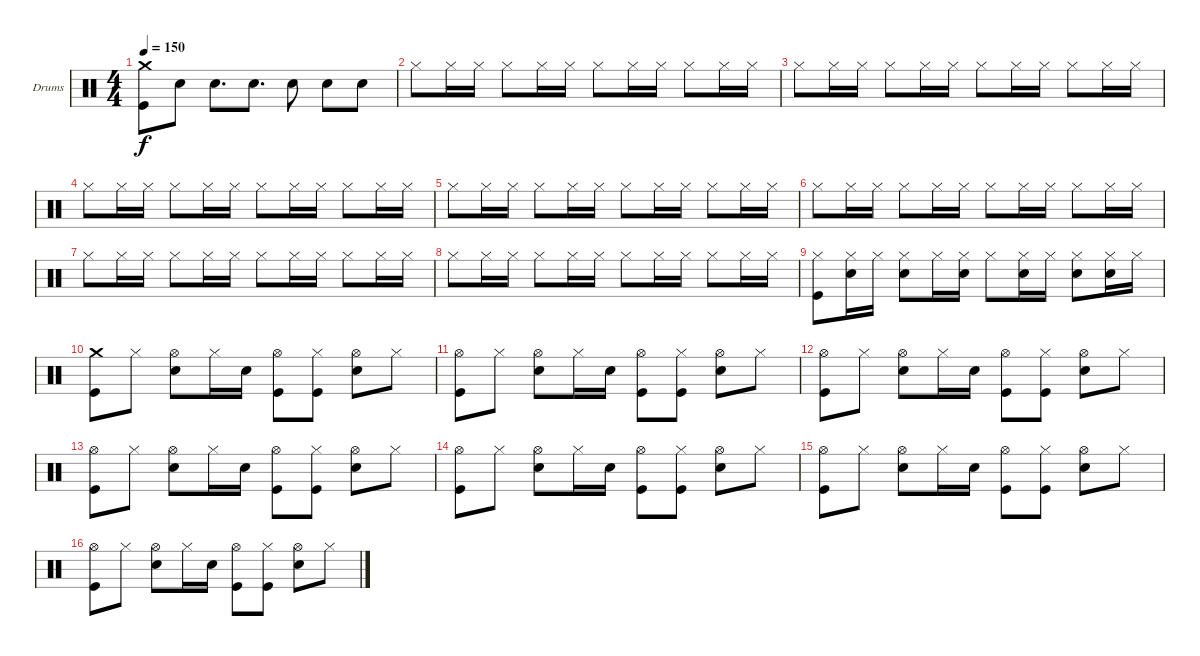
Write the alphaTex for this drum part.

\bracketExtendMode groupsimilarinstruments
\firstSystemTrackNameOrientation horizontal
\otherSystemsTrackNameOrientation horizontal
\track ("Drumkit" "Drums") {instrument percussion}
\staff {score}
\articulation defaults
\ts (4 4)
\tempo 150
\clef neutral
\ks c
("Crash medium (hit)" "Kick (hit)").8{dy f} "Snare (hit) 2".8 "Snare (hit) 2".8{d} "Snare (hit) 2".8{d} "Snare (hit) 2".8 "Snare (hit) 2".8 "Snare (hit) 2".8 |
"Hi-Hat (closed)".8 "Hi-Hat (closed)".16 "Hi-Hat (closed)".16 "Hi-Hat (closed)".8 "Hi-Hat (closed)".16 "Hi-Hat (closed)".16 "Hi-Hat (closed)".8 "Hi-Hat (closed)".16 "Hi-Hat (closed)".16 "Hi-Hat (closed)".8 "Hi-Hat (closed)".16 "Hi-Hat (closed)".16 |
"Hi-Hat (closed)".8 "Hi-Hat (closed)".16 "Hi-Hat (closed)".16 "Hi-Hat (closed)".8 "Hi-Hat (closed)".16 "Hi-Hat (closed)".16 "Hi-Hat (closed)".8 "Hi-Hat (closed)".16 "Hi-Hat (closed)".16 "Hi-Hat (closed)".8 "Hi-Hat (closed)".16 "Hi-Hat (closed)".16 |
"Hi-Hat (closed)".8 "Hi-Hat (closed)".16 "Hi-Hat (closed)".16 "Hi-Hat (closed)".8 "Hi-Hat (closed)".16 "Hi-Hat (closed)".16 "Hi-Hat (closed)".8 "Hi-Hat (closed)".16 "Hi-Hat (closed)".16 "Hi-Hat (closed)".8 "Hi-Hat (closed)".16 "Hi-Hat (closed)".16 |
"Hi-Hat (closed)".8 "Hi-Hat (closed)".16 "Hi-Hat (closed)".16 "Hi-Hat (closed)".8 "Hi-Hat (closed)".16 "Hi-Hat (closed)".16 "Hi-Hat (closed)".8 "Hi-Hat (closed)".16 "Hi-Hat (closed)".16 "Hi-Hat (closed)".8 "Hi-Hat (closed)".16 "Hi-Hat (closed)".16 |
"Hi-Hat (closed)".8 "Hi-Hat (closed)".16 "Hi-Hat (closed)".16 "Hi-Hat (closed)".8 "Hi-Hat (closed)".16 "Hi-Hat (closed)".16 "Hi-Hat (closed)".8 "Hi-Hat (closed)".16 "Hi-Hat (closed)".16 "Hi-Hat (closed)".8 "Hi-Hat (closed)".16 "Hi-Hat (closed)".16 |
"Hi-Hat (closed)".8 "Hi-Hat (closed)".16 "Hi-Hat (closed)".16 "Hi-Hat (closed)".8 "Hi-Hat (closed)".16 "Hi-Hat (closed)".16 "Hi-Hat (closed)".8 "Hi-Hat (closed)".16 "Hi-Hat (closed)".16 "Hi-Hat (closed)".8 "Hi-Hat (closed)".16 "Hi-Hat (closed)".16 |
"Hi-Hat (closed)".8 "Hi-Hat (closed)".16 "Hi-Hat (closed)".16 "Hi-Hat (closed)".8 "Hi-Hat (closed)".16 "Hi-Hat (closed)".16 "Hi-Hat (closed)".8 "Hi-Hat (closed)".16 "Hi-Hat (closed)".16 "Hi-Hat (closed)".8 "Hi-Hat (closed)".16 "Hi-Hat (closed)".16 |
("Hi-Hat (closed)" "Kick (hit)").8 ("Hi-Hat (closed)" "Snare (hit) 2").16 "Hi-Hat (closed)".16 ("Hi-Hat (closed)" "Snare (hit) 2").8 "Hi-Hat (closed)".16 ("Hi-Hat (closed)" "Snare (hit) 2").16 "Hi-Hat (closed)".8 ("Hi-Hat (closed)" "Snare (hit) 2").16 "Hi-Hat (closed)".16 ("Hi-Hat (closed)" "Snare (hit) 2").8 ("Hi-Hat (closed)" "Snare (hit) 2").16 "Hi-Hat (closed)".16 |
("Crash medium (hit)" "Kick (hit)").8 "Hi-Hat (closed)".8 ("Hi-Hat (open)" "Snare (hit) 2").8 "Hi-Hat (closed)".16 "Snare (hit) 2".16 ("Hi-Hat (open)" "Kick (hit)").8 ("Hi-Hat (closed)" "Kick (hit)").8 ("Hi-Hat (open)" "Snare (hit) 2").8 "Hi-Hat (closed)".8 |
("Hi-Hat (open)" "Kick (hit)").8 "Hi-Hat (closed)".8 ("Hi-Hat (open)" "Snare (hit) 2").8 "Hi-Hat (closed)".16 "Snare (hit) 2".16 ("Hi-Hat (open)" "Kick (hit)").8 ("Hi-Hat (closed)" "Kick (hit)").8 ("Hi-Hat (open)" "Snare (hit) 2").8 "Hi-Hat (closed)".8 |
("Hi-Hat (open)" "Kick (hit)").8 "Hi-Hat (closed)".8 ("Hi-Hat (open)" "Snare (hit) 2").8 "Hi-Hat (closed)".16 "Snare (hit) 2".16 ("Hi-Hat (open)" "Kick (hit)").8 ("Hi-Hat (closed)" "Kick (hit)").8 ("Hi-Hat (open)" "Snare (hit) 2").8 "Hi-Hat (closed)".8 |
("Hi-Hat (open)" "Kick (hit)").8 "Hi-Hat (closed)".8 ("Hi-Hat (open)" "Snare (hit) 2").8 "Hi-Hat (closed)".16 "Snare (hit) 2".16 ("Hi-Hat (open)" "Kick (hit)").8 ("Hi-Hat (closed)" "Kick (hit)").8 ("Hi-Hat (open)" "Snare (hit) 2").8 "Hi-Hat (closed)".8 |
("Hi-Hat (open)" "Kick (hit)").8 "Hi-Hat (closed)".8 ("Hi-Hat (open)" "Snare (hit) 2").8 "Hi-Hat (closed)".16 "Snare (hit) 2".16 ("Hi-Hat (open)" "Kick (hit)").8 ("Hi-Hat (closed)" "Kick (hit)").8 ("Hi-Hat (open)" "Snare (hit) 2").8 "Hi-Hat (closed)".8 |
("Hi-Hat (open)" "Kick (hit)").8 "Hi-Hat (closed)".8 ("Hi-Hat (open)" "Snare (hit) 2").8 "Hi-Hat (closed)".16 "Snare (hit) 2".16 ("Hi-Hat (open)" "Kick (hit)").8 ("Hi-Hat (closed)" "Kick (hit)").8 ("Hi-Hat (open)" "Snare (hit) 2").8 "Hi-Hat (closed)".8 |
("Hi-Hat (open)" "Kick (hit)").8 "Hi-Hat (closed)".8 ("Hi-Hat (open)" "Snare (hit) 2").8 "Hi-Hat (closed)".16 "Snare (hit) 2".16 ("Hi-Hat (open)" "Kick (hit)").8 ("Hi-Hat (closed)" "Kick (hit)").8 ("Hi-Hat (open)" "Snare (hit) 2").8 "Hi-Hat (closed)".8
